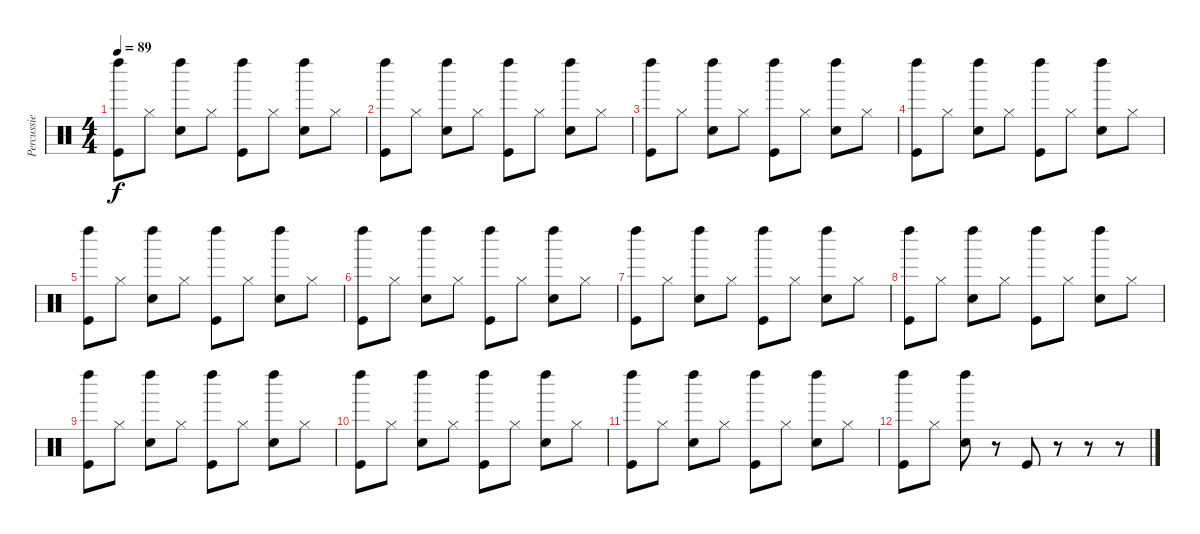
\track ("Percussie" "Percussie") {instrument percussion}
\staff {score}
\articulation defaults
\ts (4 4)
\tempo 89
\clef neutral
\ks c
("Left Maraca (hit)" "Kick (hit)").8{dy f} "Hi-Hat (closed)".8 ("Left Maraca (hit)" "Electric Snare (hit)").8 "Hi-Hat (closed)".8 ("Left Maraca (hit)" "Kick (hit)").8 "Hi-Hat (closed)".8 ("Left Maraca (hit)" "Electric Snare (hit)").8 "Hi-Hat (closed)".8 |
("Left Maraca (hit)" "Kick (hit)").8 "Hi-Hat (closed)".8 ("Left Maraca (hit)" "Electric Snare (hit)").8 "Hi-Hat (closed)".8 ("Left Maraca (hit)" "Kick (hit)").8 "Hi-Hat (closed)".8 ("Left Maraca (hit)" "Electric Snare (hit)").8 "Hi-Hat (closed)".8 |
("Left Maraca (hit)" "Kick (hit)").8 "Hi-Hat (closed)".8 ("Left Maraca (hit)" "Electric Snare (hit)").8 "Hi-Hat (closed)".8 ("Left Maraca (hit)" "Kick (hit)").8 "Hi-Hat (closed)".8 ("Left Maraca (hit)" "Electric Snare (hit)").8 "Hi-Hat (closed)".8 |
("Left Maraca (hit)" "Kick (hit)").8 "Hi-Hat (closed)".8 ("Left Maraca (hit)" "Electric Snare (hit)").8 "Hi-Hat (closed)".8 ("Left Maraca (hit)" "Kick (hit)").8 "Hi-Hat (closed)".8 ("Left Maraca (hit)" "Electric Snare (hit)").8 "Hi-Hat (closed)".8 |
("Left Maraca (hit)" "Kick (hit)").8 "Hi-Hat (closed)".8 ("Left Maraca (hit)" "Electric Snare (hit)").8 "Hi-Hat (closed)".8 ("Left Maraca (hit)" "Kick (hit)").8 "Hi-Hat (closed)".8 ("Left Maraca (hit)" "Electric Snare (hit)").8 "Hi-Hat (closed)".8 |
("Left Maraca (hit)" "Kick (hit)").8 "Hi-Hat (closed)".8 ("Left Maraca (hit)" "Electric Snare (hit)").8 "Hi-Hat (closed)".8 ("Left Maraca (hit)" "Kick (hit)").8 "Hi-Hat (closed)".8 ("Left Maraca (hit)" "Electric Snare (hit)").8 "Hi-Hat (closed)".8 |
("Left Maraca (hit)" "Kick (hit)").8 "Hi-Hat (closed)".8 ("Left Maraca (hit)" "Electric Snare (hit)").8 "Hi-Hat (closed)".8 ("Left Maraca (hit)" "Kick (hit)").8 "Hi-Hat (closed)".8 ("Left Maraca (hit)" "Electric Snare (hit)").8 "Hi-Hat (closed)".8 |
("Left Maraca (hit)" "Kick (hit)").8 "Hi-Hat (closed)".8 ("Left Maraca (hit)" "Electric Snare (hit)").8 "Hi-Hat (closed)".8 ("Left Maraca (hit)" "Kick (hit)").8 "Hi-Hat (closed)".8 ("Left Maraca (hit)" "Electric Snare (hit)").8 "Hi-Hat (closed)".8 |
("Left Maraca (hit)" "Kick (hit)").8 "Hi-Hat (closed)".8 ("Left Maraca (hit)" "Electric Snare (hit)").8 "Hi-Hat (closed)".8 ("Left Maraca (hit)" "Kick (hit)").8 "Hi-Hat (closed)".8 ("Left Maraca (hit)" "Electric Snare (hit)").8 "Hi-Hat (closed)".8 |
("Left Maraca (hit)" "Kick (hit)").8 "Hi-Hat (closed)".8 ("Left Maraca (hit)" "Electric Snare (hit)").8 "Hi-Hat (closed)".8 ("Left Maraca (hit)" "Kick (hit)").8 "Hi-Hat (closed)".8 ("Left Maraca (hit)" "Electric Snare (hit)").8 "Hi-Hat (closed)".8 |
("Left Maraca (hit)" "Kick (hit)").8 "Hi-Hat (closed)".8 ("Left Maraca (hit)" "Electric Snare (hit)").8 "Hi-Hat (closed)".8 ("Left Maraca (hit)" "Kick (hit)").8 "Hi-Hat (closed)".8 ("Left Maraca (hit)" "Electric Snare (hit)").8 "Hi-Hat (closed)".8 |
("Left Maraca (hit)" "Kick (hit)").8 "Hi-Hat (closed)".8 ("Left Maraca (hit)" "Electric Snare (hit)").8 r.8 "Kick (hit)".8 r.8 r.8 r.8
